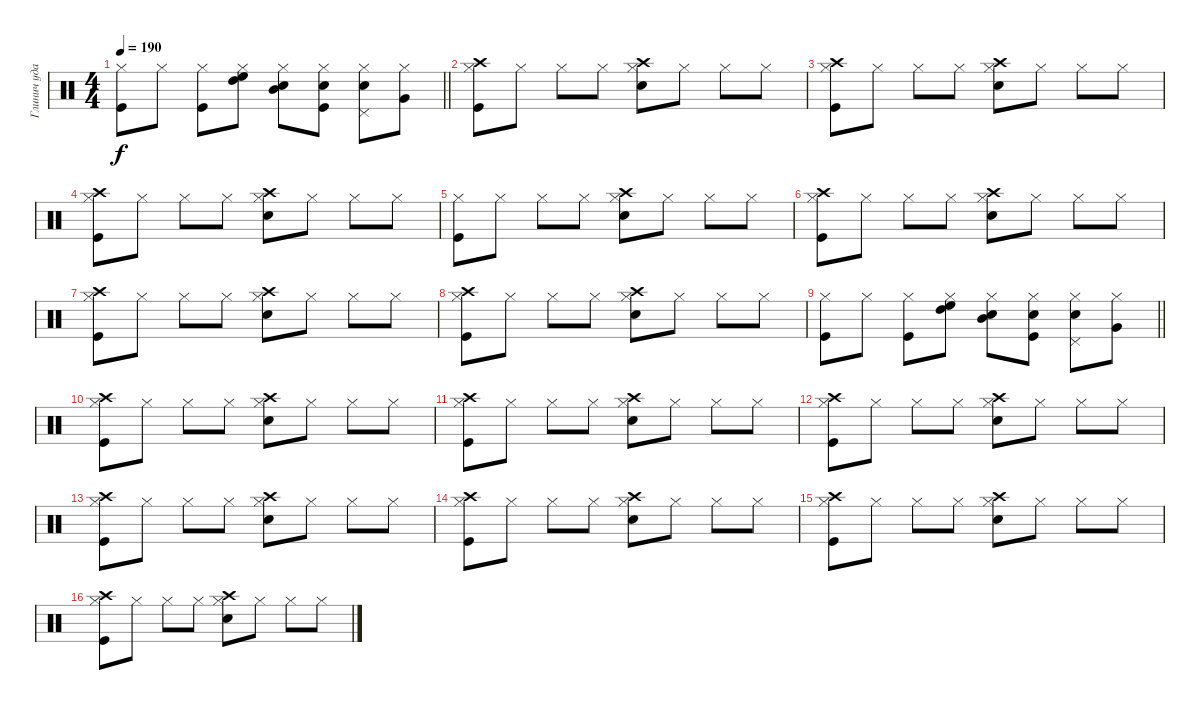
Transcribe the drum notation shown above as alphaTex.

\track ("Глинич ударные" "Глинич уда") {instrument percussion}
\staff {score}
\articulation defaults
\ts (4 4)
\tempo 190
\clef neutral
\barLineRight lightlight
\ks c
("Hi-Hat (closed)" "Kick (hit)").8{dy f} "Hi-Hat (closed)".8 ("Hi-Hat (closed)" "Kick (hit)").8 ("Hi-Hat (closed)" "High Tom (hit)" "High Floor Tom (hit)").8 ("Hi-Hat (closed)" "Mid Tom (hit)" "Snare (hit) 2").8 ("Hi-Hat (closed)" "Kick (hit)" "Snare (hit) 2").8 ("Hi-Hat (closed)" "Pedal Hi-Hat (hit)" "Snare (hit) 2").8 ("Hi-Hat (closed)" "Very Low Tom (hit)").8 |
("Hi-Hat (closed)" "Kick (hit)" "Crash high (hit)").8 "Hi-Hat (closed)".8 "Hi-Hat (closed)".8 "Hi-Hat (closed)".8 ("Hi-Hat (closed)" "Snare (hit) 2" "Crash high (hit)").8 "Hi-Hat (closed)".8 "Hi-Hat (closed)".8 "Hi-Hat (closed)".8 |
("Hi-Hat (closed)" "Kick (hit)" "Crash high (hit)").8 "Hi-Hat (closed)".8 "Hi-Hat (closed)".8 "Hi-Hat (closed)".8 ("Hi-Hat (closed)" "Snare (hit) 2" "Crash high (hit)").8 "Hi-Hat (closed)".8 "Hi-Hat (closed)".8 "Hi-Hat (closed)".8 |
("Hi-Hat (closed)" "Kick (hit)" "Crash high (hit)").8 "Hi-Hat (closed)".8 "Hi-Hat (closed)".8 "Hi-Hat (closed)".8 ("Hi-Hat (closed)" "Snare (hit) 2" "Crash high (hit)").8 "Hi-Hat (closed)".8 "Hi-Hat (closed)".8 "Hi-Hat (closed)".8 |
("Hi-Hat (closed)" "Kick (hit)").8 "Hi-Hat (closed)".8 "Hi-Hat (closed)".8 "Hi-Hat (closed)".8 ("Hi-Hat (closed)" "Snare (hit) 2" "Crash high (hit)").8 "Hi-Hat (closed)".8 "Hi-Hat (closed)".8 "Hi-Hat (closed)".8 |
("Hi-Hat (closed)" "Kick (hit)" "Crash high (hit)").8 "Hi-Hat (closed)".8 "Hi-Hat (closed)".8 "Hi-Hat (closed)".8 ("Hi-Hat (closed)" "Snare (hit) 2" "Crash high (hit)").8 "Hi-Hat (closed)".8 "Hi-Hat (closed)".8 "Hi-Hat (closed)".8 |
("Hi-Hat (closed)" "Kick (hit)" "Crash high (hit)").8 "Hi-Hat (closed)".8 "Hi-Hat (closed)".8 "Hi-Hat (closed)".8 ("Hi-Hat (closed)" "Snare (hit) 2" "Crash high (hit)").8 "Hi-Hat (closed)".8 "Hi-Hat (closed)".8 "Hi-Hat (closed)".8 |
("Hi-Hat (closed)" "Kick (hit)" "Crash high (hit)").8 "Hi-Hat (closed)".8 "Hi-Hat (closed)".8 "Hi-Hat (closed)".8 ("Hi-Hat (closed)" "Snare (hit) 2" "Crash high (hit)").8 "Hi-Hat (closed)".8 "Hi-Hat (closed)".8 "Hi-Hat (closed)".8 |
\barLineRight lightlight
("Hi-Hat (closed)" "Kick (hit)").8 "Hi-Hat (closed)".8 ("Hi-Hat (closed)" "Kick (hit)").8 ("Hi-Hat (closed)" "High Tom (hit)" "High Floor Tom (hit)").8 ("Hi-Hat (closed)" "Mid Tom (hit)" "Snare (hit) 2").8 ("Hi-Hat (closed)" "Kick (hit)" "Snare (hit) 2").8 ("Hi-Hat (closed)" "Pedal Hi-Hat (hit)" "Snare (hit) 2").8 ("Hi-Hat (closed)" "Very Low Tom (hit)").8 |
("Hi-Hat (closed)" "Kick (hit)" "Crash high (hit)").8 "Hi-Hat (closed)".8 "Hi-Hat (closed)".8 "Hi-Hat (closed)".8 ("Hi-Hat (closed)" "Snare (hit) 2" "Crash high (hit)").8 "Hi-Hat (closed)".8 "Hi-Hat (closed)".8 "Hi-Hat (closed)".8 |
("Hi-Hat (closed)" "Kick (hit)" "Crash high (hit)").8 "Hi-Hat (closed)".8 "Hi-Hat (closed)".8 "Hi-Hat (closed)".8 ("Hi-Hat (closed)" "Snare (hit) 2" "Crash high (hit)").8 "Hi-Hat (closed)".8 "Hi-Hat (closed)".8 "Hi-Hat (closed)".8 |
("Hi-Hat (closed)" "Kick (hit)" "Crash high (hit)").8 "Hi-Hat (closed)".8 "Hi-Hat (closed)".8 "Hi-Hat (closed)".8 ("Hi-Hat (closed)" "Snare (hit) 2" "Crash high (hit)").8 "Hi-Hat (closed)".8 "Hi-Hat (closed)".8 "Hi-Hat (closed)".8 |
("Hi-Hat (closed)" "Kick (hit)" "Crash high (hit)").8 "Hi-Hat (closed)".8 "Hi-Hat (closed)".8 "Hi-Hat (closed)".8 ("Hi-Hat (closed)" "Snare (hit) 2" "Crash high (hit)").8 "Hi-Hat (closed)".8 "Hi-Hat (closed)".8 "Hi-Hat (closed)".8 |
("Hi-Hat (closed)" "Kick (hit)" "Crash high (hit)").8 "Hi-Hat (closed)".8 "Hi-Hat (closed)".8 "Hi-Hat (closed)".8 ("Hi-Hat (closed)" "Snare (hit) 2" "Crash high (hit)").8 "Hi-Hat (closed)".8 "Hi-Hat (closed)".8 "Hi-Hat (closed)".8 |
("Hi-Hat (closed)" "Kick (hit)" "Crash high (hit)").8 "Hi-Hat (closed)".8 "Hi-Hat (closed)".8 "Hi-Hat (closed)".8 ("Hi-Hat (closed)" "Snare (hit) 2" "Crash high (hit)").8 "Hi-Hat (closed)".8 "Hi-Hat (closed)".8 "Hi-Hat (closed)".8 |
("Hi-Hat (closed)" "Kick (hit)" "Crash high (hit)").8 "Hi-Hat (closed)".8 "Hi-Hat (closed)".8 "Hi-Hat (closed)".8 ("Hi-Hat (closed)" "Snare (hit) 2" "Crash high (hit)").8 "Hi-Hat (closed)".8 "Hi-Hat (closed)".8 "Hi-Hat (closed)".8
